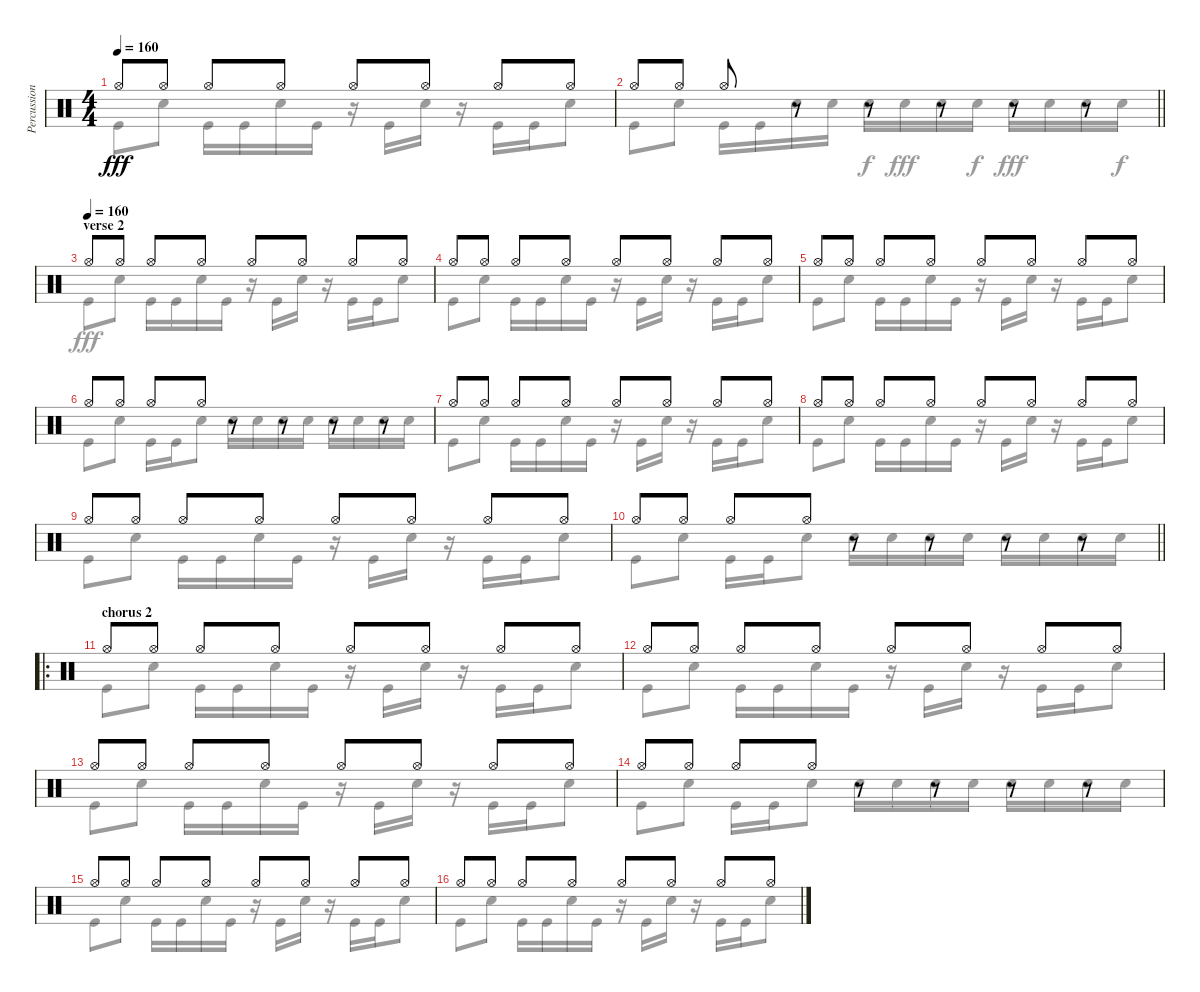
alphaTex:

\track ("Percussion" "Percussion") {instrument percussion}
\staff {score}
\articulation defaults
\voice
\ts (4 4)
\tempo 160
\clef neutral
\ks c "Hi-Hat (open)".8{dy fff} "Hi-Hat (open)".8 "Hi-Hat (open)".8 "Hi-Hat (open)".8 "Hi-Hat (open)".8 "Hi-Hat (open)".8 "Hi-Hat (open)".8 "Hi-Hat (open)".8
|
\barLineRight lightlight "Hi-Hat (open)".8 "Hi-Hat (open)".8 "Hi-Hat (open)".8
r.8 r.8 r.8 r.8 r.8 |
\section ("" "verse 2")
\tempo (160)
"Hi-Hat (open)".8 "Hi-Hat (open)".8 "Hi-Hat (open)".8 "Hi-Hat (open)".8 "Hi-Hat (open)".8 "Hi-Hat (open)".8 "Hi-Hat (open)".8 "Hi-Hat (open)".8 |
"Hi-Hat (open)".8 "Hi-Hat (open)".8 "Hi-Hat (open)".8 "Hi-Hat (open)".8 "Hi-Hat (open)".8 "Hi-Hat (open)".8 "Hi-Hat (open)".8 "Hi-Hat (open)".8 |
"Hi-Hat (open)".8 "Hi-Hat (open)".8 "Hi-Hat (open)".8 "Hi-Hat (open)".8 "Hi-Hat (open)".8 "Hi-Hat (open)".8 "Hi-Hat (open)".8 "Hi-Hat (open)".8 |
"Hi-Hat (open)".8 "Hi-Hat (open)".8 "Hi-Hat (open)".8 "Hi-Hat (open)".8 r.8 r.8 r.8 r.8 |
"Hi-Hat (open)".8 "Hi-Hat (open)".8 "Hi-Hat (open)".8 "Hi-Hat (open)".8 "Hi-Hat (open)".8 "Hi-Hat (open)".8 "Hi-Hat (open)".8 "Hi-Hat (open)".8 |
"Hi-Hat (open)".8 "Hi-Hat (open)".8 "Hi-Hat (open)".8 "Hi-Hat (open)".8 "Hi-Hat (open)".8 "Hi-Hat (open)".8 "Hi-Hat (open)".8 "Hi-Hat (open)".8 |
"Hi-Hat (open)".8 "Hi-Hat (open)".8 "Hi-Hat (open)".8 "Hi-Hat (open)".8 "Hi-Hat (open)".8 "Hi-Hat (open)".8 "Hi-Hat (open)".8 "Hi-Hat (open)".8 |
\barLineRight lightlight "Hi-Hat (open)".8 "Hi-Hat (open)".8 "Hi-Hat (open)".8 "Hi-Hat (open)".8
r.8 r.8 r.8 r.8 |
\ro
\section ("" "chorus 2")
"Hi-Hat (open)".8 "Hi-Hat (open)".8 "Hi-Hat (open)".8 "Hi-Hat (open)".8 "Hi-Hat (open)".8 "Hi-Hat (open)".8 "Hi-Hat (open)".8 "Hi-Hat (open)".8 |
"Hi-Hat (open)".8 "Hi-Hat (open)".8 "Hi-Hat (open)".8 "Hi-Hat (open)".8 "Hi-Hat (open)".8 "Hi-Hat (open)".8 "Hi-Hat (open)".8 "Hi-Hat (open)".8 |
"Hi-Hat (open)".8 "Hi-Hat (open)".8 "Hi-Hat (open)".8 "Hi-Hat (open)".8 "Hi-Hat (open)".8 "Hi-Hat (open)".8 "Hi-Hat (open)".8 "Hi-Hat (open)".8 |
"Hi-Hat (open)".8 "Hi-Hat (open)".8 "Hi-Hat (open)".8 "Hi-Hat (open)".8 r.8 r.8 r.8 r.8 |
"Hi-Hat (open)".8 "Hi-Hat (open)".8 "Hi-Hat (open)".8 "Hi-Hat (open)".8 "Hi-Hat (open)".8 "Hi-Hat (open)".8 "Hi-Hat (open)".8 "Hi-Hat (open)".8 |
"Hi-Hat (open)".8 "Hi-Hat (open)".8 "Hi-Hat (open)".8 "Hi-Hat (open)".8 "Hi-Hat (open)".8 "Hi-Hat (open)".8 "Hi-Hat (open)".8 "Hi-Hat (open)".8
\voice
\clef neutral
\ottava regular
\simile none
\ks c "Kick (hit)".8{dy fff} "Snare (hit) 2".8 "Kick (hit)".16 "Kick (hit)".16 "Snare (hit) 2".16 "Kick (hit)".16
r.16 "Kick (hit)".16 "Snare (hit) 2".16 r.16 "Kick (hit)".16 "Kick (hit)".16 "Snare (hit) 2".8 |
\barLineRight lightlight "Kick (hit)".8 "Snare (hit) 2".8 "Kick (hit)".16 "Kick (hit)".16 "Snare (hit) 2".16 "Snare (hit) 2".16 "Snare (hit) 2".16{dy f} "Snare (hit) 2".16{dy fff} "Snare (hit) 2".16 "Snare (hit) 2".16{dy f} "Snare (hit) 2".16{dy fff} "Snare (hit) 2".16 "Snare (hit) 2".16 "Snare (hit) 2".16{dy f}
|
"Kick (hit)".8{dy fff} "Snare (hit) 2".8 "Kick (hit)".16 "Kick (hit)".16 "Snare (hit) 2".16 "Kick (hit)".16 r.16 "Kick (hit)".16 "Snare (hit) 2".16 r.16 "Kick (hit)".16 "Kick (hit)".16 "Snare (hit) 2".8 |
"Kick (hit)".8 "Snare (hit) 2".8 "Kick (hit)".16 "Kick (hit)".16 "Snare (hit) 2".16 "Kick (hit)".16 r.16 "Kick (hit)".16 "Snare (hit) 2".16 r.16 "Kick (hit)".16 "Kick (hit)".16 "Snare (hit) 2".8 |
"Kick (hit)".8 "Snare (hit) 2".8 "Kick (hit)".16 "Kick (hit)".16 "Snare (hit) 2".16 "Kick (hit)".16 r.16 "Kick (hit)".16 "Snare (hit) 2".16 r.16 "Kick (hit)".16 "Kick (hit)".16 "Snare (hit) 2".8 |
"Kick (hit)".8 "Snare (hit) 2".8 "Kick (hit)".16 "Kick (hit)".16 "Snare (hit) 2".8 "Snare (hit) 2".16 "Snare (hit) 2".16 "Snare (hit) 2".16 "Snare (hit) 2".16 "Snare (hit) 2".16 "Snare (hit) 2".16 "Snare (hit) 2".16 "Snare (hit) 2".16 |
"Kick (hit)".8 "Snare (hit) 2".8 "Kick (hit)".16 "Kick (hit)".16 "Snare (hit) 2".16 "Kick (hit)".16 r.16 "Kick (hit)".16 "Snare (hit) 2".16 r.16 "Kick (hit)".16 "Kick (hit)".16 "Snare (hit) 2".8 |
"Kick (hit)".8 "Snare (hit) 2".8 "Kick (hit)".16 "Kick (hit)".16 "Snare (hit) 2".16 "Kick (hit)".16 r.16 "Kick (hit)".16 "Snare (hit) 2".16 r.16 "Kick (hit)".16 "Kick (hit)".16 "Snare (hit) 2".8 |
"Kick (hit)".8 "Snare (hit) 2".8 "Kick (hit)".16 "Kick (hit)".16 "Snare (hit) 2".16 "Kick (hit)".16 r.16 "Kick (hit)".16 "Snare (hit) 2".16 r.16 "Kick (hit)".16 "Kick (hit)".16 "Snare (hit) 2".8 |
\barLineRight lightlight "Kick (hit)".8 "Snare (hit) 2".8 "Kick (hit)".16 "Kick (hit)".16 "Snare (hit) 2".8 "Snare (hit) 2".16 "Snare (hit) 2".16 "Snare (hit) 2".16 "Snare (hit) 2".16 "Snare (hit) 2".16 "Snare (hit) 2".16 "Snare (hit) 2".16 "Snare (hit) 2".16
|
"Kick (hit)".8 "Snare (hit) 2".8 "Kick (hit)".16 "Kick (hit)".16 "Snare (hit) 2".16 "Kick (hit)".16 r.16 "Kick (hit)".16 "Snare (hit) 2".16 r.16 "Kick (hit)".16 "Kick (hit)".16 "Snare (hit) 2".8 |
"Kick (hit)".8 "Snare (hit) 2".8 "Kick (hit)".16 "Kick (hit)".16 "Snare (hit) 2".16 "Kick (hit)".16 r.16 "Kick (hit)".16 "Snare (hit) 2".16 r.16 "Kick (hit)".16 "Kick (hit)".16 "Snare (hit) 2".8 |
"Kick (hit)".8 "Snare (hit) 2".8 "Kick (hit)".16 "Kick (hit)".16 "Snare (hit) 2".16 "Kick (hit)".16 r.16 "Kick (hit)".16 "Snare (hit) 2".16 r.16 "Kick (hit)".16 "Kick (hit)".16 "Snare (hit) 2".8 |
"Kick (hit)".8 "Snare (hit) 2".8 "Kick (hit)".16 "Kick (hit)".16 "Snare (hit) 2".8 "Snare (hit) 2".16 "Snare (hit) 2".16 "Snare (hit) 2".16 "Snare (hit) 2".16 "Snare (hit) 2".16 "Snare (hit) 2".16 "Snare (hit) 2".16 "Snare (hit) 2".16 |
"Kick (hit)".8 "Snare (hit) 2".8 "Kick (hit)".16 "Kick (hit)".16 "Snare (hit) 2".16 "Kick (hit)".16 r.16 "Kick (hit)".16 "Snare (hit) 2".16 r.16 "Kick (hit)".16 "Kick (hit)".16 "Snare (hit) 2".8 |
"Kick (hit)".8 "Snare (hit) 2".8 "Kick (hit)".16 "Kick (hit)".16 "Snare (hit) 2".16 "Kick (hit)".16 r.16 "Kick (hit)".16 "Snare (hit) 2".16 r.16 "Kick (hit)".16 "Kick (hit)".16 "Snare (hit) 2".8
